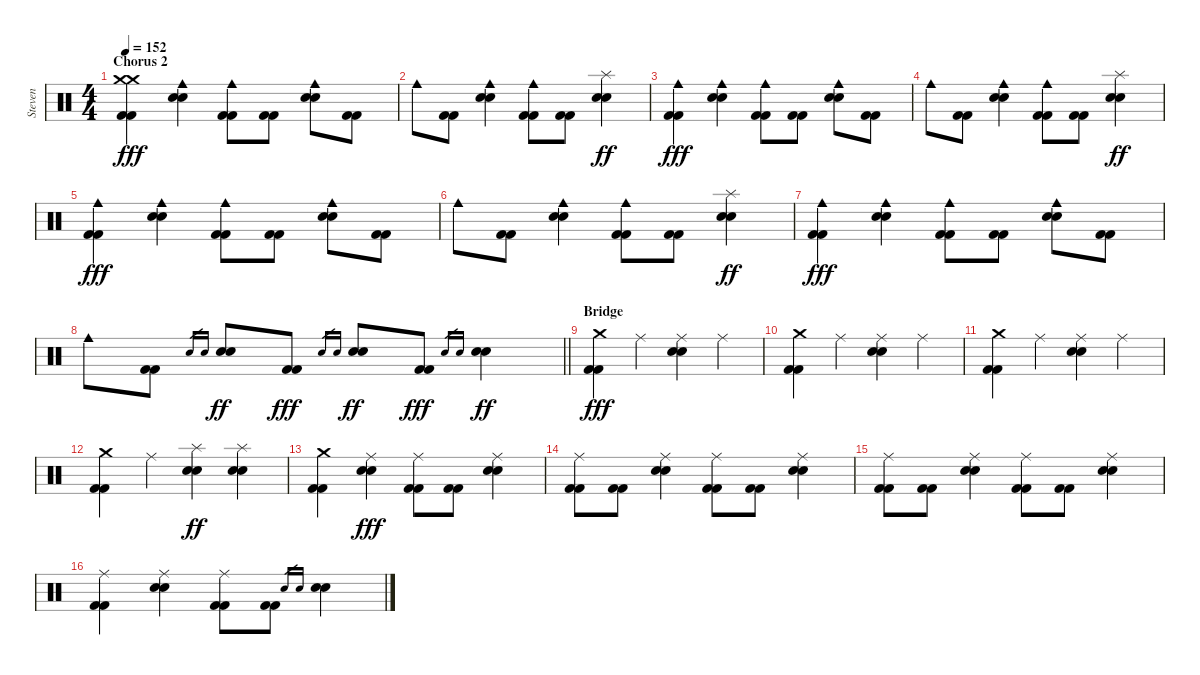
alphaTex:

\track ("Steven" "Steven") {instrument percussion}
\staff {score}
\articulation defaults
\ts (4 4)
\section ("" "Chorus 2")
\tempo 152
\clef neutral
\ks c
("Crash medium (hit)" "Crash medium (hit)" "Kick (hit) 2" "Kick (hit) 2").4{dy fff} ("Cowbell medium (hit)" "Electric Snare (hit)" "Electric Snare (hit)").4 ("Cowbell medium (hit)" "Kick (hit) 2" "Kick (hit) 2").8 ("Kick (hit) 2" "Kick (hit) 2").8 ("Cowbell medium (hit)" "Electric Snare (hit)" "Electric Snare (hit)").8 ("Kick (hit) 2" "Kick (hit) 2").8 |
"Cowbell medium (hit)".8 ("Kick (hit) 2" "Kick (hit) 2").8 ("Cowbell medium (hit)" "Electric Snare (hit)" "Electric Snare (hit)").4 ("Cowbell medium (hit)" "Kick (hit) 2" "Kick (hit) 2").8 ("Kick (hit) 2" "Kick (hit) 2").8 ("Splash (hit)" "Electric Snare (hit)" "Electric Snare (hit)").4{dy ff} |
("Cowbell medium (hit)" "Kick (hit) 2" "Kick (hit) 2").4{dy fff} ("Cowbell medium (hit)" "Electric Snare (hit)" "Electric Snare (hit)").4 ("Cowbell medium (hit)" "Kick (hit) 2" "Kick (hit) 2").8 ("Kick (hit) 2" "Kick (hit) 2").8 ("Cowbell medium (hit)" "Electric Snare (hit)" "Electric Snare (hit)").8 ("Kick (hit) 2" "Kick (hit) 2").8 |
"Cowbell medium (hit)".8 ("Kick (hit) 2" "Kick (hit) 2").8 ("Cowbell medium (hit)" "Electric Snare (hit)" "Electric Snare (hit)").4 ("Cowbell medium (hit)" "Kick (hit) 2" "Kick (hit) 2").8 ("Kick (hit) 2" "Kick (hit) 2").8 ("Splash (hit)" "Electric Snare (hit)" "Electric Snare (hit)").4{dy ff} |
("Cowbell medium (hit)" "Kick (hit) 2" "Kick (hit) 2").4{dy fff} ("Cowbell medium (hit)" "Electric Snare (hit)" "Electric Snare (hit)").4 ("Cowbell medium (hit)" "Kick (hit) 2" "Kick (hit) 2").8 ("Kick (hit) 2" "Kick (hit) 2").8 ("Cowbell medium (hit)" "Electric Snare (hit)" "Electric Snare (hit)").8 ("Kick (hit) 2" "Kick (hit) 2").8 |
"Cowbell medium (hit)".8 ("Kick (hit) 2" "Kick (hit) 2").8 ("Cowbell medium (hit)" "Electric Snare (hit)" "Electric Snare (hit)").4 ("Cowbell medium (hit)" "Kick (hit) 2" "Kick (hit) 2").8 ("Kick (hit) 2" "Kick (hit) 2").8 ("Splash (hit)" "Electric Snare (hit)" "Electric Snare (hit)").4{dy ff} |
("Cowbell medium (hit)" "Kick (hit) 2" "Kick (hit) 2").4{dy fff} ("Cowbell medium (hit)" "Electric Snare (hit)" "Electric Snare (hit)").4 ("Cowbell medium (hit)" "Kick (hit) 2" "Kick (hit) 2").8 ("Kick (hit) 2" "Kick (hit) 2").8 ("Cowbell medium (hit)" "Electric Snare (hit)" "Electric Snare (hit)").8 ("Kick (hit) 2" "Kick (hit) 2").8 |
\barLineRight lightlight "Cowbell medium (hit)".8
("Kick (hit) 2" "Kick (hit) 2").8 "Electric Snare (hit)".16{gr} "Electric Snare (hit)".16{gr} ("Electric Snare (hit)" "Electric Snare (hit)").8{dy ff} ("Kick (hit) 2" "Kick (hit) 2").8{dy fff} "Electric Snare (hit)".16{gr} "Electric Snare (hit)".16{gr} ("Electric Snare (hit)" "Electric Snare (hit)").8{dy ff} ("Kick (hit) 2" "Kick (hit) 2").8{dy fff} "Electric Snare (hit)".16{gr} "Electric Snare (hit)".16{gr} ("Electric Snare (hit)" "Electric Snare (hit)").4{dy ff} |
\section ("" "Bridge")
("Crash medium (hit)" "Kick (hit) 2" "Kick (hit) 2").4{dy fff} "Ride (middle)".4 ("Ride (middle)" "Electric Snare (hit)" "Electric Snare (hit)").4 "Ride (middle)".4 |
("Crash medium (hit)" "Kick (hit) 2" "Kick (hit) 2").4 "Ride (middle)".4 ("Ride (middle)" "Electric Snare (hit)" "Electric Snare (hit)").4 "Ride (middle)".4 |
("Crash medium (hit)" "Kick (hit) 2" "Kick (hit) 2").4 "Ride (middle)".4 ("Ride (middle)" "Electric Snare (hit)" "Electric Snare (hit)").4 "Ride (middle)".4 |
("Crash medium (hit)" "Kick (hit) 2" "Kick (hit) 2").4 "Ride (middle)".4 ("Splash (hit)" "Electric Snare (hit)" "Electric Snare (hit)").4{dy ff} ("Splash (hit)" "Electric Snare (hit)" "Electric Snare (hit)").4 |
("Crash medium (hit)" "Kick (hit) 2" "Kick (hit) 2").4 ("Ride (middle)" "Electric Snare (hit)" "Electric Snare (hit)").4{dy fff} ("Ride (middle)" "Kick (hit) 2" "Kick (hit) 2").8 ("Kick (hit) 2" "Kick (hit) 2").8 ("Ride (middle)" "Electric Snare (hit)" "Electric Snare (hit)").4 |
("Ride (middle)" "Kick (hit) 2" "Kick (hit) 2").8 ("Kick (hit) 2" "Kick (hit) 2").8 ("Ride (middle)" "Electric Snare (hit)" "Electric Snare (hit)").4 ("Ride (middle)" "Kick (hit) 2" "Kick (hit) 2").8 ("Kick (hit) 2" "Kick (hit) 2").8 ("Ride (middle)" "Electric Snare (hit)" "Electric Snare (hit)").4 |
("Ride (middle)" "Kick (hit) 2" "Kick (hit) 2").8 ("Kick (hit) 2" "Kick (hit) 2").8 ("Ride (middle)" "Electric Snare (hit)" "Electric Snare (hit)").4 ("Ride (middle)" "Kick (hit) 2" "Kick (hit) 2").8 ("Kick (hit) 2" "Kick (hit) 2").8 ("Ride (middle)" "Electric Snare (hit)" "Electric Snare (hit)").4 |
("Ride (middle)" "Kick (hit) 2" "Kick (hit) 2").4 ("Ride (middle)" "Electric Snare (hit)" "Electric Snare (hit)").4 ("Ride (middle)" "Kick (hit) 2" "Kick (hit) 2").8 ("Kick (hit) 2" "Kick (hit) 2").8 "Electric Snare (hit)".16{gr} "Electric Snare (hit)".16{gr} ("Electric Snare (hit)" "Electric Snare (hit)").4
